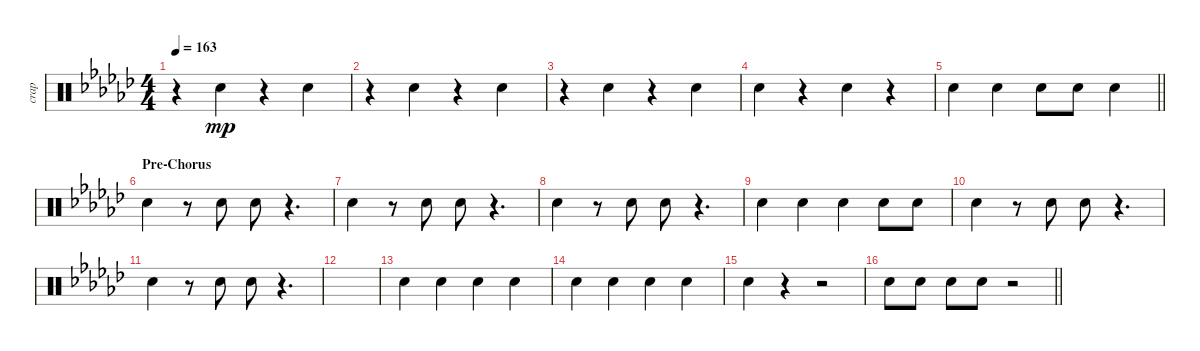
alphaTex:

\track ("crap" "crap") {mute instrument percussion}
\staff {score}
\articulation defaults
\ts (4 4)
\tempo 163
\clef neutral
\ks gb
r.4{dy mp} "Hand Clap (hit)".4 r.4 "Hand Clap (hit)".4 |
r.4 "Hand Clap (hit)".4 r.4 "Hand Clap (hit)".4 |
r.4 "Hand Clap (hit)".4 r.4 "Hand Clap (hit)".4 |
"Hand Clap (hit)".4 r.4 "Hand Clap (hit)".4 r.4 |
\barLineRight lightlight "Hand Clap (hit)".4 "Hand Clap (hit)".4 "Hand Clap (hit)".8 "Hand Clap (hit)".8 "Hand Clap (hit)".4
|
\section ("" "Pre-Chorus")
"Hand Clap (hit)".4 r.8 "Hand Clap (hit)".8 "Hand Clap (hit)".8 r.4{d} |
"Hand Clap (hit)".4 r.8 "Hand Clap (hit)".8 "Hand Clap (hit)".8 r.4{d} |
"Hand Clap (hit)".4 r.8 "Hand Clap (hit)".8 "Hand Clap (hit)".8 r.4{d} |
"Hand Clap (hit)".4 "Hand Clap (hit)".4 "Hand Clap (hit)".4 "Hand Clap (hit)".8 "Hand Clap (hit)".8 |
"Hand Clap (hit)".4 r.8 "Hand Clap (hit)".8 "Hand Clap (hit)".8 r.4{d} |
"Hand Clap (hit)".4 r.8 "Hand Clap (hit)".8 "Hand Clap (hit)".8 r.4{d} |
|
"Hand Clap (hit)".4 "Hand Clap (hit)".4 "Hand Clap (hit)".4 "Hand Clap (hit)".4 |
"Hand Clap (hit)".4 "Hand Clap (hit)".4 "Hand Clap (hit)".4 "Hand Clap (hit)".4 |
"Hand Clap (hit)".4 r.4 r.2 |
\barLineRight lightlight "Hand Clap (hit)".8 "Hand Clap (hit)".8 "Hand Clap (hit)".8 "Hand Clap (hit)".8
r.2
